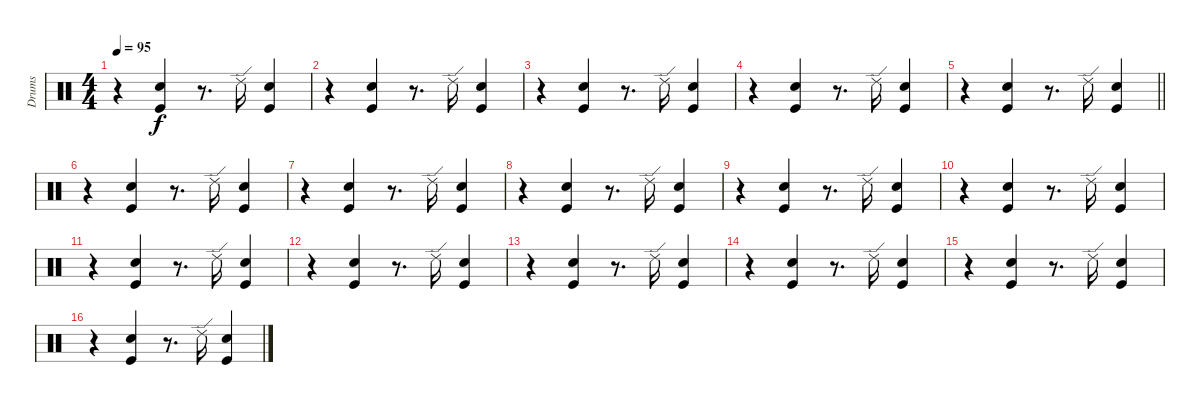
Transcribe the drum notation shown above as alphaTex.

\track ("Drums" "Drums") {instrument percussion}
\staff {score}
\articulation defaults
\ts (4 4)
\tempo 95
\clef neutral
\ks c
r.4{dy f} ("Kick (hit)" "Snare (hit) 2").4 r.8{d} "Ride (edge) 2".16 ("Kick (hit)" "Snare (hit) 2").4 |
r.4 ("Kick (hit)" "Snare (hit) 2").4 r.8{d} "Ride (edge) 2".16 ("Kick (hit)" "Snare (hit) 2").4 |
r.4 ("Kick (hit)" "Snare (hit) 2").4 r.8{d} "Ride (edge) 2".16 ("Kick (hit)" "Snare (hit) 2").4 |
r.4 ("Kick (hit)" "Snare (hit) 2").4 r.8{d} "Ride (edge) 2".16 ("Kick (hit)" "Snare (hit) 2").4 |
\barLineRight lightlight
r.4 ("Kick (hit)" "Snare (hit) 2").4 r.8{d} "Ride (edge) 2".16 ("Kick (hit)" "Snare (hit) 2").4 |
r.4 ("Kick (hit)" "Snare (hit) 2").4 r.8{d} "Ride (edge) 2".16 ("Kick (hit)" "Snare (hit) 2").4 |
r.4 ("Kick (hit)" "Snare (hit) 2").4 r.8{d} "Ride (edge) 2".16 ("Kick (hit)" "Snare (hit) 2").4 |
r.4 ("Kick (hit)" "Snare (hit) 2").4 r.8{d} "Ride (edge) 2".16 ("Kick (hit)" "Snare (hit) 2").4 |
r.4 ("Kick (hit)" "Snare (hit) 2").4 r.8{d} "Ride (edge) 2".16 ("Kick (hit)" "Snare (hit) 2").4 |
r.4 ("Kick (hit)" "Snare (hit) 2").4 r.8{d} "Ride (edge) 2".16 ("Kick (hit)" "Snare (hit) 2").4 |
r.4 ("Kick (hit)" "Snare (hit) 2").4 r.8{d} "Ride (edge) 2".16 ("Kick (hit)" "Snare (hit) 2").4 |
r.4 ("Kick (hit)" "Snare (hit) 2").4 r.8{d} "Ride (edge) 2".16 ("Kick (hit)" "Snare (hit) 2").4 |
r.4 ("Kick (hit)" "Snare (hit) 2").4 r.8{d} "Ride (edge) 2".16 ("Kick (hit)" "Snare (hit) 2").4 |
r.4 ("Kick (hit)" "Snare (hit) 2").4 r.8{d} "Ride (edge) 2".16 ("Kick (hit)" "Snare (hit) 2").4 |
r.4 ("Kick (hit)" "Snare (hit) 2").4 r.8{d} "Ride (edge) 2".16 ("Kick (hit)" "Snare (hit) 2").4 |
r.4 ("Kick (hit)" "Snare (hit) 2").4 r.8{d} "Ride (edge) 2".16 ("Kick (hit)" "Snare (hit) 2").4
